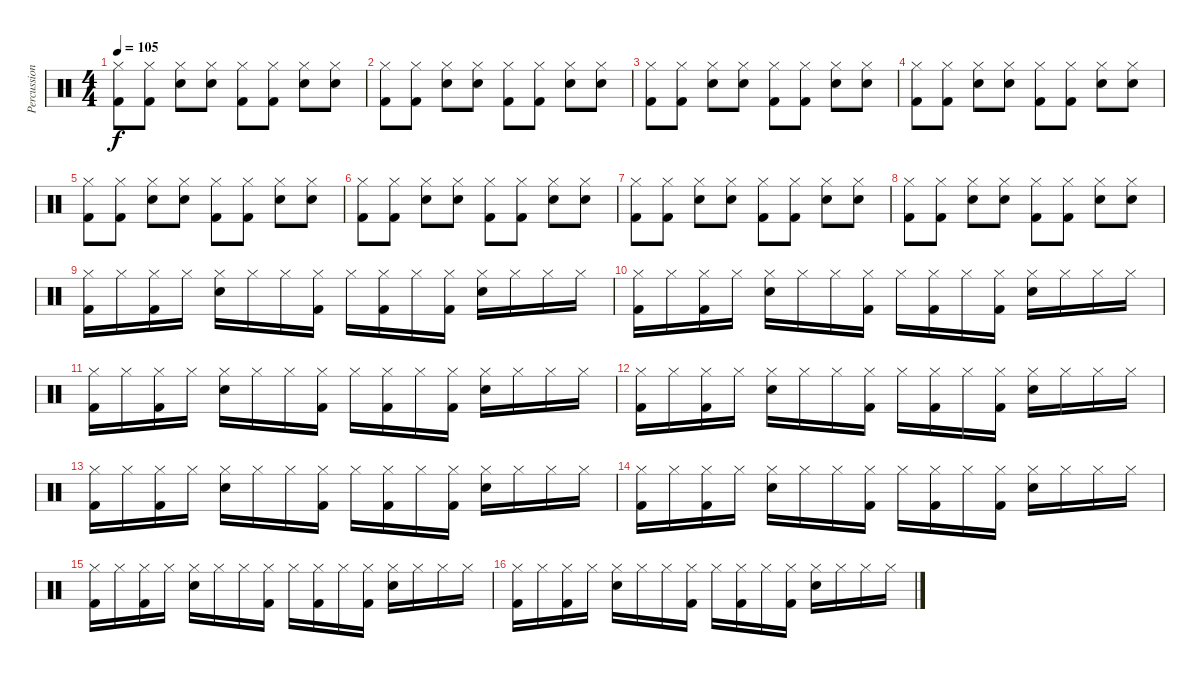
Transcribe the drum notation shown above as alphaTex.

\track ("Percussion" "Percussion") {instrument percussion}
\staff {score}
\articulation defaults
\ts (4 4)
\tempo 105
\clef neutral
\ks c
("Kick (hit) 2" "Hi-Hat (closed)").8{dy f} ("Kick (hit) 2" "Hi-Hat (closed)").8 ("Snare (hit) 2" "Hi-Hat (closed)").8 ("Snare (hit) 2" "Hi-Hat (closed)").8 ("Kick (hit) 2" "Hi-Hat (closed)").8 ("Kick (hit) 2" "Hi-Hat (closed)").8 ("Snare (hit) 2" "Hi-Hat (closed)").8 ("Snare (hit) 2" "Hi-Hat (closed)").8 |
("Kick (hit) 2" "Hi-Hat (closed)").8 ("Kick (hit) 2" "Hi-Hat (closed)").8 ("Snare (hit) 2" "Hi-Hat (closed)").8 ("Snare (hit) 2" "Hi-Hat (closed)").8 ("Kick (hit) 2" "Hi-Hat (closed)").8 ("Kick (hit) 2" "Hi-Hat (closed)").8 ("Snare (hit) 2" "Hi-Hat (closed)").8 ("Snare (hit) 2" "Hi-Hat (closed)").8 |
("Kick (hit) 2" "Hi-Hat (closed)").8 ("Kick (hit) 2" "Hi-Hat (closed)").8 ("Snare (hit) 2" "Hi-Hat (closed)").8 ("Snare (hit) 2" "Hi-Hat (closed)").8 ("Kick (hit) 2" "Hi-Hat (closed)").8 ("Kick (hit) 2" "Hi-Hat (closed)").8 ("Snare (hit) 2" "Hi-Hat (closed)").8 ("Snare (hit) 2" "Hi-Hat (closed)").8 |
("Kick (hit) 2" "Hi-Hat (closed)").8 ("Kick (hit) 2" "Hi-Hat (closed)").8 ("Snare (hit) 2" "Hi-Hat (closed)").8 ("Snare (hit) 2" "Hi-Hat (closed)").8 ("Kick (hit) 2" "Hi-Hat (closed)").8 ("Kick (hit) 2" "Hi-Hat (closed)").8 ("Snare (hit) 2" "Hi-Hat (closed)").8 ("Snare (hit) 2" "Hi-Hat (closed)").8 |
("Kick (hit) 2" "Hi-Hat (closed)").8 ("Kick (hit) 2" "Hi-Hat (closed)").8 ("Snare (hit) 2" "Hi-Hat (closed)").8 ("Snare (hit) 2" "Hi-Hat (closed)").8 ("Kick (hit) 2" "Hi-Hat (closed)").8 ("Kick (hit) 2" "Hi-Hat (closed)").8 ("Snare (hit) 2" "Hi-Hat (closed)").8 ("Snare (hit) 2" "Hi-Hat (closed)").8 |
("Kick (hit) 2" "Hi-Hat (closed)").8 ("Kick (hit) 2" "Hi-Hat (closed)").8 ("Snare (hit) 2" "Hi-Hat (closed)").8 ("Snare (hit) 2" "Hi-Hat (closed)").8 ("Kick (hit) 2" "Hi-Hat (closed)").8 ("Kick (hit) 2" "Hi-Hat (closed)").8 ("Snare (hit) 2" "Hi-Hat (closed)").8 ("Snare (hit) 2" "Hi-Hat (closed)").8 |
("Kick (hit) 2" "Hi-Hat (closed)").8 ("Kick (hit) 2" "Hi-Hat (closed)").8 ("Snare (hit) 2" "Hi-Hat (closed)").8 ("Snare (hit) 2" "Hi-Hat (closed)").8 ("Kick (hit) 2" "Hi-Hat (closed)").8 ("Kick (hit) 2" "Hi-Hat (closed)").8 ("Snare (hit) 2" "Hi-Hat (closed)").8 ("Snare (hit) 2" "Hi-Hat (closed)").8 |
("Kick (hit) 2" "Hi-Hat (closed)").8 ("Kick (hit) 2" "Hi-Hat (closed)").8 ("Snare (hit) 2" "Hi-Hat (closed)").8 ("Snare (hit) 2" "Hi-Hat (closed)").8 ("Kick (hit) 2" "Hi-Hat (closed)").8 ("Kick (hit) 2" "Hi-Hat (closed)").8 ("Snare (hit) 2" "Hi-Hat (closed)").8 ("Snare (hit) 2" "Hi-Hat (closed)").8 |
("Kick (hit) 2" "Hi-Hat (closed)").16 "Hi-Hat (closed)".16 ("Kick (hit) 2" "Hi-Hat (closed)").16 "Hi-Hat (closed)".16 ("Snare (hit) 2" "Hi-Hat (closed)").16 "Hi-Hat (closed)".16 "Hi-Hat (closed)".16 ("Kick (hit) 2" "Hi-Hat (closed)").16 "Hi-Hat (closed)".16 ("Kick (hit) 2" "Hi-Hat (closed)").16 "Hi-Hat (closed)".16 ("Kick (hit) 2" "Hi-Hat (closed)").16 ("Snare (hit) 2" "Hi-Hat (closed)").16 "Hi-Hat (closed)".16 "Hi-Hat (closed)".16 "Hi-Hat (closed)".16 |
("Kick (hit) 2" "Hi-Hat (closed)").16 "Hi-Hat (closed)".16 ("Kick (hit) 2" "Hi-Hat (closed)").16 "Hi-Hat (closed)".16 ("Snare (hit) 2" "Hi-Hat (closed)").16 "Hi-Hat (closed)".16 "Hi-Hat (closed)".16 ("Kick (hit) 2" "Hi-Hat (closed)").16 "Hi-Hat (closed)".16 ("Kick (hit) 2" "Hi-Hat (closed)").16 "Hi-Hat (closed)".16 ("Kick (hit) 2" "Hi-Hat (closed)").16 ("Snare (hit) 2" "Hi-Hat (closed)").16 "Hi-Hat (closed)".16 "Hi-Hat (closed)".16 "Hi-Hat (closed)".16 |
("Kick (hit) 2" "Hi-Hat (closed)").16 "Hi-Hat (closed)".16 ("Kick (hit) 2" "Hi-Hat (closed)").16 "Hi-Hat (closed)".16 ("Snare (hit) 2" "Hi-Hat (closed)").16 "Hi-Hat (closed)".16 "Hi-Hat (closed)".16 ("Kick (hit) 2" "Hi-Hat (closed)").16 "Hi-Hat (closed)".16 ("Kick (hit) 2" "Hi-Hat (closed)").16 "Hi-Hat (closed)".16 ("Kick (hit) 2" "Hi-Hat (closed)").16 ("Snare (hit) 2" "Hi-Hat (closed)").16 "Hi-Hat (closed)".16 "Hi-Hat (closed)".16 "Hi-Hat (closed)".16 |
("Kick (hit) 2" "Hi-Hat (closed)").16 "Hi-Hat (closed)".16 ("Kick (hit) 2" "Hi-Hat (closed)").16 "Hi-Hat (closed)".16 ("Snare (hit) 2" "Hi-Hat (closed)").16 "Hi-Hat (closed)".16 "Hi-Hat (closed)".16 ("Kick (hit) 2" "Hi-Hat (closed)").16 "Hi-Hat (closed)".16 ("Kick (hit) 2" "Hi-Hat (closed)").16 "Hi-Hat (closed)".16 ("Kick (hit) 2" "Hi-Hat (closed)").16 ("Snare (hit) 2" "Hi-Hat (closed)").16 "Hi-Hat (closed)".16 "Hi-Hat (closed)".16 "Hi-Hat (closed)".16 |
("Kick (hit) 2" "Hi-Hat (closed)").16 "Hi-Hat (closed)".16 ("Kick (hit) 2" "Hi-Hat (closed)").16 "Hi-Hat (closed)".16 ("Snare (hit) 2" "Hi-Hat (closed)").16 "Hi-Hat (closed)".16 "Hi-Hat (closed)".16 ("Kick (hit) 2" "Hi-Hat (closed)").16 "Hi-Hat (closed)".16 ("Kick (hit) 2" "Hi-Hat (closed)").16 "Hi-Hat (closed)".16 ("Kick (hit) 2" "Hi-Hat (closed)").16 ("Snare (hit) 2" "Hi-Hat (closed)").16 "Hi-Hat (closed)".16 "Hi-Hat (closed)".16 "Hi-Hat (closed)".16 |
("Kick (hit) 2" "Hi-Hat (closed)").16 "Hi-Hat (closed)".16 ("Kick (hit) 2" "Hi-Hat (closed)").16 "Hi-Hat (closed)".16 ("Snare (hit) 2" "Hi-Hat (closed)").16 "Hi-Hat (closed)".16 "Hi-Hat (closed)".16 ("Kick (hit) 2" "Hi-Hat (closed)").16 "Hi-Hat (closed)".16 ("Kick (hit) 2" "Hi-Hat (closed)").16 "Hi-Hat (closed)".16 ("Kick (hit) 2" "Hi-Hat (closed)").16 ("Snare (hit) 2" "Hi-Hat (closed)").16 "Hi-Hat (closed)".16 "Hi-Hat (closed)".16 "Hi-Hat (closed)".16 |
("Kick (hit) 2" "Hi-Hat (closed)").16 "Hi-Hat (closed)".16 ("Kick (hit) 2" "Hi-Hat (closed)").16 "Hi-Hat (closed)".16 ("Snare (hit) 2" "Hi-Hat (closed)").16 "Hi-Hat (closed)".16 "Hi-Hat (closed)".16 ("Kick (hit) 2" "Hi-Hat (closed)").16 "Hi-Hat (closed)".16 ("Kick (hit) 2" "Hi-Hat (closed)").16 "Hi-Hat (closed)".16 ("Kick (hit) 2" "Hi-Hat (closed)").16 ("Snare (hit) 2" "Hi-Hat (closed)").16 "Hi-Hat (closed)".16 "Hi-Hat (closed)".16 "Hi-Hat (closed)".16 |
("Kick (hit) 2" "Hi-Hat (closed)").16 "Hi-Hat (closed)".16 ("Kick (hit) 2" "Hi-Hat (closed)").16 "Hi-Hat (closed)".16 ("Snare (hit) 2" "Hi-Hat (closed)").16 "Hi-Hat (closed)".16 "Hi-Hat (closed)".16 ("Kick (hit) 2" "Hi-Hat (closed)").16 "Hi-Hat (closed)".16 ("Kick (hit) 2" "Hi-Hat (closed)").16 "Hi-Hat (closed)".16 ("Kick (hit) 2" "Hi-Hat (closed)").16 ("Snare (hit) 2" "Hi-Hat (closed)").16 "Hi-Hat (closed)".16 "Hi-Hat (closed)".16 "Hi-Hat (closed)".16
